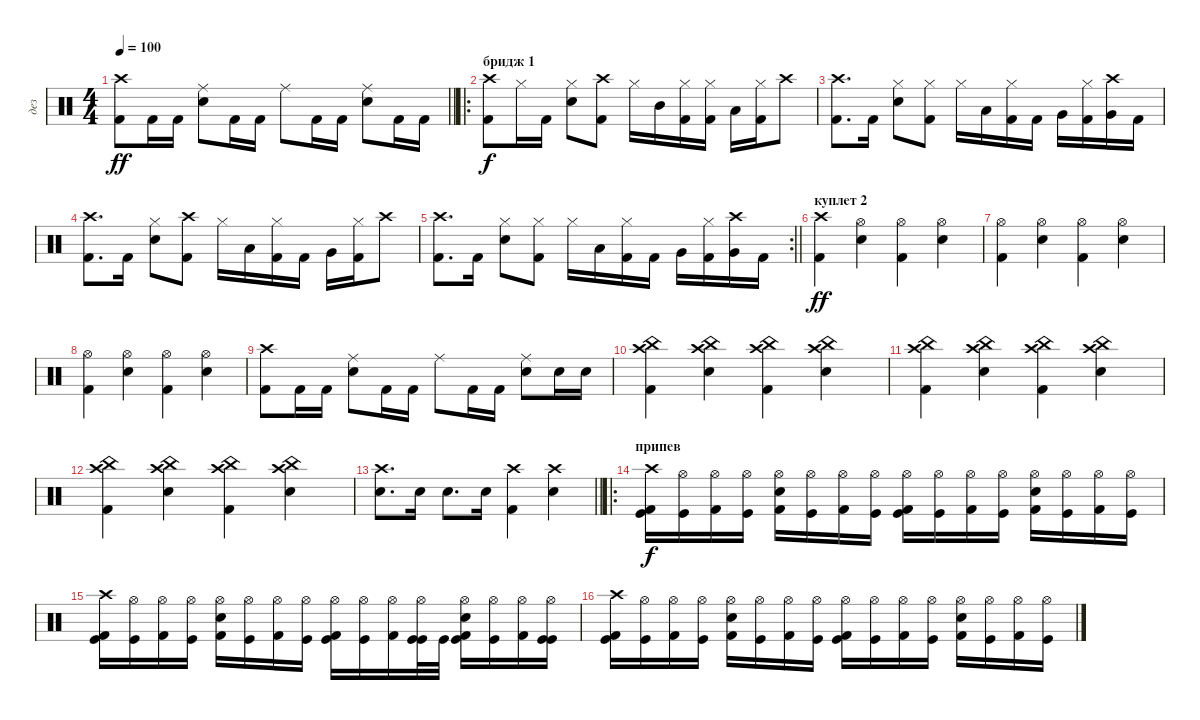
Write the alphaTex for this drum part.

\track ("дез" "дез") {instrument percussion}
\staff {score}
\articulation defaults
\ts (4 4)
\tempo 100
\clef neutral
\barLineRight lightlight
\ks c
("Kick (hit) 2" "Crash high (hit)").8{dy ff} "Kick (hit) 2".16 "Kick (hit) 2".16 ("Electric Snare (hit)" "Ride (middle)").8 "Kick (hit) 2".16 "Kick (hit) 2".16 "Ride (middle)".8 "Kick (hit) 2".16 "Kick (hit) 2".16 ("Electric Snare (hit)" "Ride (middle)").8 "Kick (hit) 2".16 "Kick (hit) 2".16 |
\ro
\section ("" "бридж 1")
("Crash high (hit)" "Kick (hit) 2").8{dy f} "Hi-Hat (closed)".16 "Kick (hit) 2".16 ("Hi-Hat (closed)" "Electric Snare (hit)").8 ("Crash high (hit)" "Kick (hit) 2").8 "Hi-Hat (closed)".16 "Mid Tom (hit)".16 ("Hi-Hat (closed)" "Kick (hit) 2").16 ("Hi-Hat (closed)" "Kick (hit) 2").16 "Low Tom (hit)".16 ("Hi-Hat (closed)" "Kick (hit) 2").16 "Crash high (hit)".8 |
("Crash high (hit)" "Kick (hit) 2").8{d} "Kick (hit) 2".16 ("Hi-Hat (closed)" "Electric Snare (hit)").8 ("Hi-Hat (closed)" "Kick (hit) 2").8 "Hi-Hat (closed)".16 "Low Tom (hit)".16 ("Hi-Hat (closed)" "Kick (hit) 2").16 "Kick (hit) 2".16 "Very Low Tom (hit)".16 ("Hi-Hat (closed)" "Kick (hit) 2").16 ("Crash high (hit)" "Very Low Tom (hit)").16 "Kick (hit) 2".16 |
("Crash high (hit)" "Kick (hit) 2").8{d} "Kick (hit) 2".16 ("Hi-Hat (closed)" "Electric Snare (hit)").8 ("Crash high (hit)" "Kick (hit) 2").8 "Hi-Hat (closed)".16 "Low Tom (hit)".16 ("Hi-Hat (closed)" "Kick (hit) 2").16 "Kick (hit) 2".16 "Very Low Tom (hit)".16 ("Hi-Hat (closed)" "Kick (hit) 2").16 "Crash high (hit)".8 |
\rc 2
\barLineRight lightlight
("Crash high (hit)" "Kick (hit) 2").8{d} "Kick (hit) 2".16 ("Hi-Hat (closed)" "Electric Snare (hit)").8 ("Hi-Hat (closed)" "Kick (hit) 2").8 "Hi-Hat (closed)".16 "Low Tom (hit)".16 ("Hi-Hat (closed)" "Kick (hit) 2").16 "Kick (hit) 2".16 "Very Low Tom (hit)".16 ("Hi-Hat (closed)" "Kick (hit) 2").16 ("Crash high (hit)" "Very Low Tom (hit)").16 "Kick (hit) 2".16 |
\section ("" "куплет 2")
("Kick (hit) 2" "Crash high (hit)").4{dy ff} ("Electric Snare (hit)" "Hi-Hat (open)").4 ("Kick (hit) 2" "Hi-Hat (open)").4 ("Electric Snare (hit)" "Hi-Hat (open)").4 |
("Kick (hit) 2" "Hi-Hat (open)").4 ("Electric Snare (hit)" "Hi-Hat (open)").4 ("Kick (hit) 2" "Hi-Hat (open)").4 ("Electric Snare (hit)" "Hi-Hat (open)").4 |
("Kick (hit) 2" "Hi-Hat (open)").4 ("Electric Snare (hit)" "Hi-Hat (open)").4 ("Kick (hit) 2" "Hi-Hat (open)").4 ("Electric Snare (hit)" "Hi-Hat (open)").4 |
("Kick (hit) 2" "Crash high (hit)").8 "Kick (hit) 2".16 "Kick (hit) 2".16 ("Electric Snare (hit)" "Ride (middle)").8 "Kick (hit) 2".16 "Kick (hit) 2".16 "Ride (middle)".8 "Kick (hit) 2".16 "Kick (hit) 2".16 ("Electric Snare (hit)" "Ride (middle)").8 "Electric Snare (hit)".16 "Electric Snare (hit)".16 |
("Kick (hit) 2" "Crash high (hit)" "China (hit)").4 ("Electric Snare (hit)" "Crash high (hit)" "China (hit)").4 ("Kick (hit) 2" "Crash high (hit)" "China (hit)").4 ("Electric Snare (hit)" "Crash high (hit)" "China (hit)").4 |
("Kick (hit) 2" "Crash high (hit)" "China (hit)").4 ("Electric Snare (hit)" "Crash high (hit)" "China (hit)").4 ("Kick (hit) 2" "Crash high (hit)" "China (hit)").4 ("Electric Snare (hit)" "Crash high (hit)" "China (hit)").4 |
("Kick (hit) 2" "Crash high (hit)" "China (hit)").4 ("Electric Snare (hit)" "Crash high (hit)" "China (hit)").4 ("Kick (hit) 2" "Crash high (hit)" "China (hit)").4 ("Electric Snare (hit)" "Crash high (hit)" "China (hit)").4 |
\barLineRight lightlight
("Electric Snare (hit)" "Crash high (hit)").8{d} "Electric Snare (hit)".16 "Electric Snare (hit)".8{d} "Electric Snare (hit)".16 ("Kick (hit) 2" "Crash high (hit)").4 ("Electric Snare (hit)" "Crash high (hit)").4 |
\ro
\section ("" "припев")
("Crash high (hit)" "Kick (hit) 2" "Kick (hit)").16{dy f} ("Hi-Hat (open)" "Kick (hit)").16 ("Hi-Hat (open)" "Kick (hit) 2").16 ("Hi-Hat (open)" "Kick (hit)").16 ("Hi-Hat (open)" "Kick (hit) 2" "Electric Snare (hit)").16 ("Hi-Hat (open)" "Kick (hit)").16 ("Hi-Hat (open)" "Kick (hit) 2").16 ("Hi-Hat (open)" "Kick (hit)").16 ("Hi-Hat (open)" "Kick (hit) 2" "Kick (hit)").16 ("Hi-Hat (open)" "Kick (hit)").16 ("Hi-Hat (open)" "Kick (hit) 2").16 ("Hi-Hat (open)" "Kick (hit)").16 ("Hi-Hat (open)" "Kick (hit) 2" "Electric Snare (hit)").16 ("Hi-Hat (open)" "Kick (hit)").16 ("Hi-Hat (open)" "Kick (hit) 2").16 ("Hi-Hat (open)" "Kick (hit)").16 |
("Crash high (hit)" "Kick (hit) 2" "Kick (hit)").16 ("Hi-Hat (open)" "Kick (hit)").16 ("Hi-Hat (open)" "Kick (hit) 2").16 ("Hi-Hat (open)" "Kick (hit)").16 ("Hi-Hat (open)" "Kick (hit) 2" "Electric Snare (hit)").16 ("Hi-Hat (open)" "Kick (hit)").16 ("Hi-Hat (open)" "Kick (hit) 2").16 ("Hi-Hat (open)" "Kick (hit)").16 ("Hi-Hat (open)" "Kick (hit) 2" "Kick (hit)").16 ("Hi-Hat (open)" "Kick (hit)").16 ("Hi-Hat (open)" "Kick (hit) 2").16 ("Hi-Hat (open)" "Kick (hit)" "Kick (hit)").32 "Kick (hit)".32 ("Hi-Hat (open)" "Kick (hit) 2" "Electric Snare (hit)" "Kick (hit)").16 ("Hi-Hat (open)" "Kick (hit)").16 ("Hi-Hat (open)" "Kick (hit) 2").16 ("Hi-Hat (open)" "Kick (hit)" "Kick (hit)").16 |
("Crash high (hit)" "Kick (hit) 2" "Kick (hit)").16 ("Hi-Hat (open)" "Kick (hit)").16 ("Hi-Hat (open)" "Kick (hit) 2").16 ("Hi-Hat (open)" "Kick (hit)").16 ("Hi-Hat (open)" "Kick (hit) 2" "Electric Snare (hit)").16 ("Hi-Hat (open)" "Kick (hit)").16 ("Hi-Hat (open)" "Kick (hit) 2").16 ("Hi-Hat (open)" "Kick (hit)").16 ("Hi-Hat (open)" "Kick (hit) 2" "Kick (hit)").16 ("Hi-Hat (open)" "Kick (hit)").16 ("Hi-Hat (open)" "Kick (hit) 2").16 ("Hi-Hat (open)" "Kick (hit)").16 ("Hi-Hat (open)" "Kick (hit) 2" "Electric Snare (hit)").16 ("Hi-Hat (open)" "Kick (hit)").16 ("Hi-Hat (open)" "Kick (hit) 2").16 ("Hi-Hat (open)" "Kick (hit)").16
